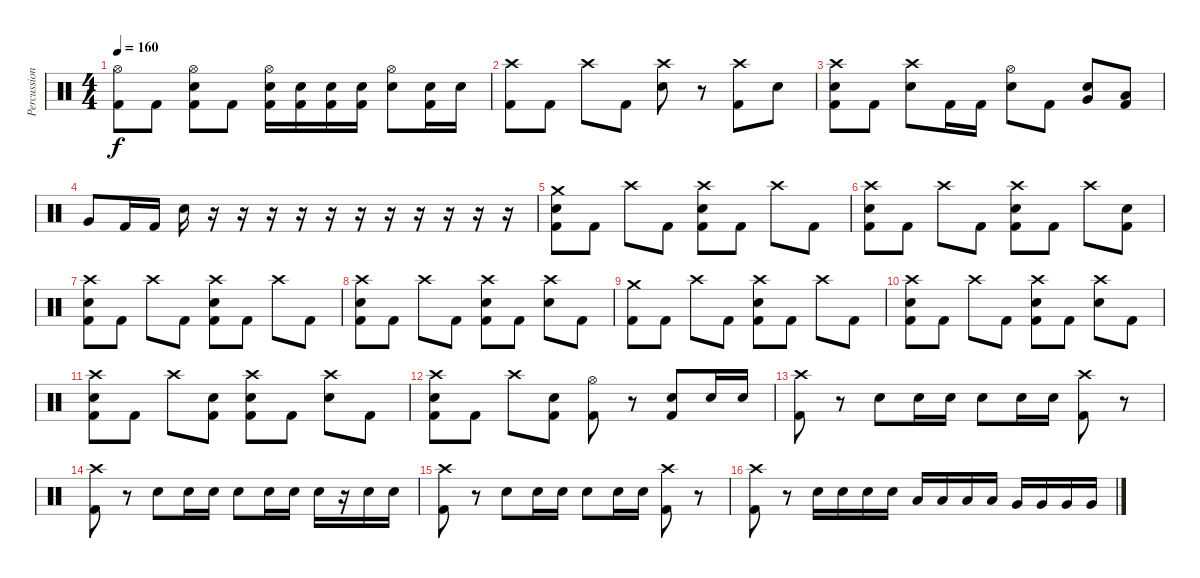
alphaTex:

\track ("Percussion" "Percussion") {instrument percussion}
\staff {score}
\articulation defaults
\ts (4 4)
\tempo 160
\clef neutral
\ks c
("Hi-Hat (open)" "Kick (hit) 2").8{dy f} "Kick (hit) 2".8 ("Hi-Hat (open)" "Electric Snare (hit)" "Kick (hit) 2").8 "Kick (hit) 2".8 ("Hi-Hat (open)" "Electric Snare (hit)" "Kick (hit) 2").16 ("Electric Snare (hit)" "Kick (hit) 2").16 ("Electric Snare (hit)" "Kick (hit) 2").16 ("Electric Snare (hit)" "Kick (hit) 2").16 ("Hi-Hat (open)" "Electric Snare (hit)").8 ("Electric Snare (hit)" "Kick (hit) 2").16 "Electric Snare (hit)".16 |
("Crash high (hit)" "Kick (hit) 2").8 "Kick (hit) 2".8 "Crash high (hit)".8 "Kick (hit) 2".8 ("Crash high (hit)" "Electric Snare (hit)").8 r.8 ("Crash high (hit)" "Kick (hit) 2").8 "Electric Snare (hit)".8 |
("Crash high (hit)" "Electric Snare (hit)" "Kick (hit) 2").8 "Kick (hit) 2".8 ("Crash high (hit)" "Electric Snare (hit)").8 "Kick (hit) 2".16 "Kick (hit) 2".16 ("Hi-Hat (open)" "Electric Snare (hit)").8 "Kick (hit) 2".8 ("Very Low Tom (hit)" "Electric Snare (hit)").8 ("Low Tom (hit)" "Kick (hit) 2").8 |
"Very Low Tom (hit)".8 "Kick (hit) 2".16 "Kick (hit) 2".16 "Electric Snare (hit)".16 r.16 r.16 r.16 r.16 r.16 r.16 r.16 r.16 r.16 r.16 r.16 |
("Crash medium (hit)" "Electric Snare (hit)" "Kick (hit) 2").8 "Kick (hit) 2".8 "Crash high (hit)".8 "Kick (hit) 2".8 ("Crash high (hit)" "Electric Snare (hit)" "Kick (hit) 2").8 "Kick (hit) 2".8 "Crash high (hit)".8 "Kick (hit) 2".8 |
("Crash high (hit)" "Electric Snare (hit)" "Kick (hit) 2").8 "Kick (hit) 2".8 "Crash high (hit)".8 "Kick (hit) 2".8 ("Crash high (hit)" "Electric Snare (hit)" "Kick (hit) 2").8 "Kick (hit) 2".8 "Crash high (hit)".8 ("Electric Snare (hit)" "Kick (hit) 2").8 |
("Crash high (hit)" "Electric Snare (hit)" "Kick (hit) 2").8 "Kick (hit) 2".8 "Crash high (hit)".8 "Kick (hit) 2".8 ("Crash high (hit)" "Electric Snare (hit)" "Kick (hit) 2").8 "Kick (hit) 2".8 "Crash high (hit)".8 "Kick (hit) 2".8 |
("Crash high (hit)" "Electric Snare (hit)" "Kick (hit) 2").8 "Kick (hit) 2".8 "Crash high (hit)".8 "Kick (hit) 2".8 ("Crash high (hit)" "Electric Snare (hit)" "Kick (hit) 2").8 "Kick (hit) 2".8 ("Crash high (hit)" "Electric Snare (hit)").8 "Kick (hit) 2".8 |
("Crash medium (hit)" "Kick (hit) 2").8 "Kick (hit) 2".8 "Crash high (hit)".8 "Kick (hit) 2".8 ("Crash high (hit)" "Electric Snare (hit)" "Kick (hit) 2").8 "Kick (hit) 2".8 "Crash high (hit)".8 "Kick (hit) 2".8 |
("Crash high (hit)" "Electric Snare (hit)" "Kick (hit) 2").8 "Kick (hit) 2".8 "Crash high (hit)".8 "Kick (hit) 2".8 ("Crash high (hit)" "Electric Snare (hit)" "Kick (hit) 2").8 "Kick (hit) 2".8 ("Crash high (hit)" "Electric Snare (hit)").8 "Kick (hit) 2".8 |
("Crash high (hit)" "Electric Snare (hit)" "Kick (hit) 2").8 "Kick (hit) 2".8 "Crash high (hit)".8 ("Electric Snare (hit)" "Kick (hit) 2").8 ("Crash high (hit)" "Electric Snare (hit)" "Kick (hit) 2").8 "Kick (hit) 2".8 ("Crash high (hit)" "Electric Snare (hit)").8 "Kick (hit) 2".8 |
("Crash high (hit)" "Electric Snare (hit)" "Kick (hit) 2").8 "Kick (hit) 2".8 "Crash high (hit)".8 ("Electric Snare (hit)" "Kick (hit) 2").8 ("Hi-Hat (open)" "Kick (hit) 2").8 r.8 ("Electric Snare (hit)" "Kick (hit) 2").8 "Electric Snare (hit)".16 "Electric Snare (hit)".16 |
("Crash high (hit)" "Kick (hit) 2").8 r.8 "Electric Snare (hit)".8 "Electric Snare (hit)".16 "Electric Snare (hit)".16 "Electric Snare (hit)".8 "Electric Snare (hit)".16 "Electric Snare (hit)".16 ("Crash high (hit)" "Kick (hit) 2").8 r.8 |
("Crash high (hit)" "Kick (hit) 2").8 r.8 "Electric Snare (hit)".8 "Electric Snare (hit)".16 "Electric Snare (hit)".16 "Electric Snare (hit)".8 "Electric Snare (hit)".16 "Electric Snare (hit)".16 "Electric Snare (hit)".16 r.16 "Electric Snare (hit)".16 "Electric Snare (hit)".16 |
("Crash high (hit)" "Kick (hit) 2").8 r.8 "Electric Snare (hit)".8 "Electric Snare (hit)".16 "Electric Snare (hit)".16 "Electric Snare (hit)".8 "Electric Snare (hit)".16 "Electric Snare (hit)".16 ("Crash high (hit)" "Kick (hit) 2").8 r.8 |
("Crash high (hit)" "Kick (hit) 2").8 r.8 "Electric Snare (hit)".16 "Electric Snare (hit)".16 "Electric Snare (hit)".16 "Electric Snare (hit)".16 "Low Tom (hit)".16 "Low Tom (hit)".16 "Low Tom (hit)".16 "Low Tom (hit)".16 "Very Low Tom (hit)".16 "Very Low Tom (hit)".16 "Very Low Tom (hit)".16 "Very Low Tom (hit)".16
